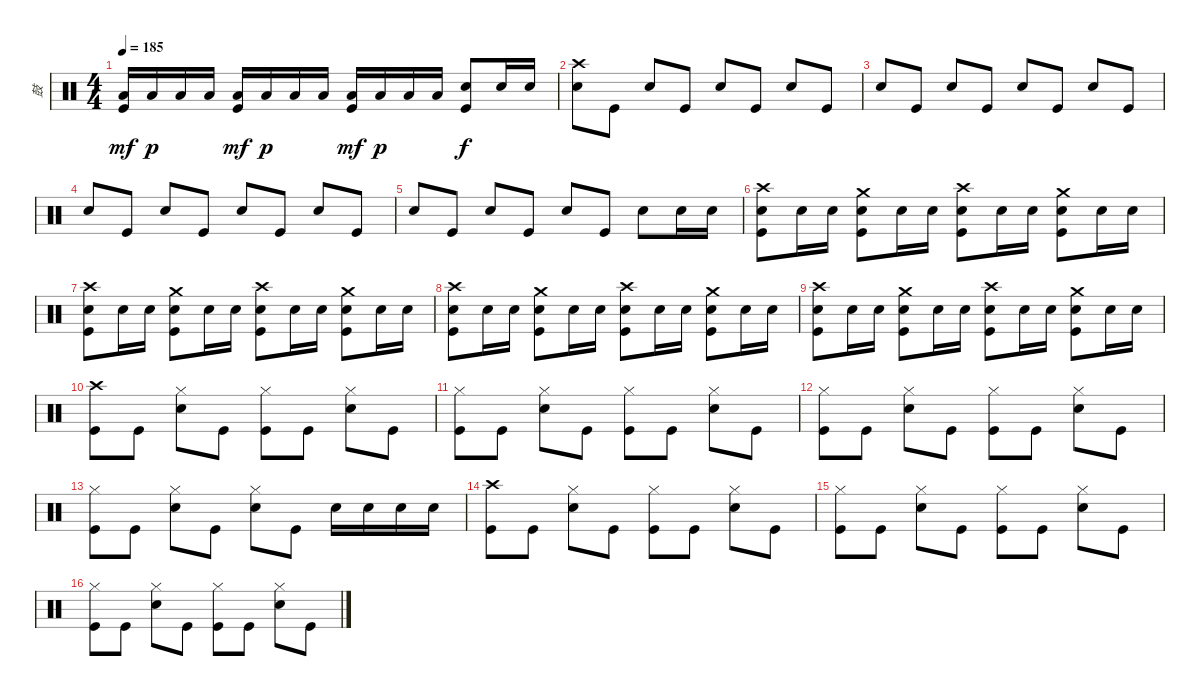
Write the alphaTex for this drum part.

\track ("鼓" "鼓") {instrument percussion}
\staff {score}
\articulation defaults
\ts (4 4)
\tempo 185
\clef neutral
\ks c
("Low Floor Tom (hit)" "Kick (hit)").16{dy mf} "Low Floor Tom (hit)".16{dy p} "Low Floor Tom (hit)".16 "Low Floor Tom (hit)".16 ("Low Floor Tom (hit)" "Kick (hit)").16{dy mf} "Low Floor Tom (hit)".16{dy p} "Low Floor Tom (hit)".16 "Low Floor Tom (hit)".16 ("Low Floor Tom (hit)" "Kick (hit)").16{dy mf} "Low Floor Tom (hit)".16{dy p} "Low Floor Tom (hit)".16 "Low Floor Tom (hit)".16 ("Snare (hit) 2" "Kick (hit)").8{dy f} "Snare (hit) 2".16 "Snare (hit) 2".16 |
("Crash high (hit)" "Snare (hit) 2").8 "Kick (hit)".8 "Snare (hit) 2".8 "Kick (hit)".8 "Snare (hit) 2".8 "Kick (hit)".8 "Snare (hit) 2".8 "Kick (hit)".8 |
"Snare (hit) 2".8 "Kick (hit)".8 "Snare (hit) 2".8 "Kick (hit)".8 "Snare (hit) 2".8 "Kick (hit)".8 "Snare (hit) 2".8 "Kick (hit)".8 |
"Snare (hit) 2".8 "Kick (hit)".8 "Snare (hit) 2".8 "Kick (hit)".8 "Snare (hit) 2".8 "Kick (hit)".8 "Snare (hit) 2".8 "Kick (hit)".8 |
"Snare (hit) 2".8 "Kick (hit)".8 "Snare (hit) 2".8 "Kick (hit)".8 "Snare (hit) 2".8 "Kick (hit)".8 "Snare (hit) 2".8 "Snare (hit) 2".16 "Snare (hit) 2".16 |
("Crash high (hit)" "Snare (hit) 2" "Kick (hit)").8 "Snare (hit) 2".16 "Snare (hit) 2".16 ("Crash medium (hit)" "Snare (hit) 2" "Kick (hit)").8 "Snare (hit) 2".16 "Snare (hit) 2".16 ("Crash high (hit)" "Snare (hit) 2" "Kick (hit)").8 "Snare (hit) 2".16 "Snare (hit) 2".16 ("Crash medium (hit)" "Snare (hit) 2" "Kick (hit)").8 "Snare (hit) 2".16 "Snare (hit) 2".16 |
("Crash high (hit)" "Snare (hit) 2" "Kick (hit)").8 "Snare (hit) 2".16 "Snare (hit) 2".16 ("Crash medium (hit)" "Snare (hit) 2" "Kick (hit)").8 "Snare (hit) 2".16 "Snare (hit) 2".16 ("Crash high (hit)" "Snare (hit) 2" "Kick (hit)").8 "Snare (hit) 2".16 "Snare (hit) 2".16 ("Crash medium (hit)" "Snare (hit) 2" "Kick (hit)").8 "Snare (hit) 2".16 "Snare (hit) 2".16 |
("Crash high (hit)" "Snare (hit) 2" "Kick (hit)").8 "Snare (hit) 2".16 "Snare (hit) 2".16 ("Crash medium (hit)" "Snare (hit) 2" "Kick (hit)").8 "Snare (hit) 2".16 "Snare (hit) 2".16 ("Crash high (hit)" "Snare (hit) 2" "Kick (hit)").8 "Snare (hit) 2".16 "Snare (hit) 2".16 ("Crash medium (hit)" "Snare (hit) 2" "Kick (hit)").8 "Snare (hit) 2".16 "Snare (hit) 2".16 |
("Crash high (hit)" "Snare (hit) 2" "Kick (hit)").8 "Snare (hit) 2".16 "Snare (hit) 2".16 ("Crash medium (hit)" "Snare (hit) 2" "Kick (hit)").8 "Snare (hit) 2".16 "Snare (hit) 2".16 ("Crash high (hit)" "Snare (hit) 2" "Kick (hit)").8 "Snare (hit) 2".16 "Snare (hit) 2".16 ("Crash medium (hit)" "Snare (hit) 2" "Kick (hit)").8 "Snare (hit) 2".16 "Snare (hit) 2".16 |
("Crash high (hit)" "Kick (hit)").8 "Kick (hit)".8 ("Hi-Hat (closed)" "Snare (hit) 2").8 "Kick (hit)".8 ("Hi-Hat (closed)" "Kick (hit)").8 "Kick (hit)".8 ("Hi-Hat (closed)" "Snare (hit) 2").8 "Kick (hit)".8 |
("Hi-Hat (closed)" "Kick (hit)").8 "Kick (hit)".8 ("Hi-Hat (closed)" "Snare (hit) 2").8 "Kick (hit)".8 ("Hi-Hat (closed)" "Kick (hit)").8 "Kick (hit)".8 ("Hi-Hat (closed)" "Snare (hit) 2").8 "Kick (hit)".8 |
("Hi-Hat (closed)" "Kick (hit)").8 "Kick (hit)".8 ("Hi-Hat (closed)" "Snare (hit) 2").8 "Kick (hit)".8 ("Hi-Hat (closed)" "Kick (hit)").8 "Kick (hit)".8 ("Hi-Hat (closed)" "Snare (hit) 2").8 "Kick (hit)".8 |
("Hi-Hat (closed)" "Kick (hit)").8 "Kick (hit)".8 ("Hi-Hat (closed)" "Snare (hit) 2").8 "Kick (hit)".8 ("Hi-Hat (closed)" "Snare (hit) 2").8 "Kick (hit)".8 "Snare (hit) 2".16 "Snare (hit) 2".16 "Snare (hit) 2".16 "Snare (hit) 2".16 |
("Crash high (hit)" "Kick (hit)").8 "Kick (hit)".8 ("Hi-Hat (closed)" "Snare (hit) 2").8 "Kick (hit)".8 ("Hi-Hat (closed)" "Kick (hit)").8 "Kick (hit)".8 ("Hi-Hat (closed)" "Snare (hit) 2").8 "Kick (hit)".8 |
("Hi-Hat (closed)" "Kick (hit)").8 "Kick (hit)".8 ("Hi-Hat (closed)" "Snare (hit) 2").8 "Kick (hit)".8 ("Hi-Hat (closed)" "Kick (hit)").8 "Kick (hit)".8 ("Hi-Hat (closed)" "Snare (hit) 2").8 "Kick (hit)".8 |
("Hi-Hat (closed)" "Kick (hit)").8 "Kick (hit)".8 ("Hi-Hat (closed)" "Snare (hit) 2").8 "Kick (hit)".8 ("Hi-Hat (closed)" "Kick (hit)").8 "Kick (hit)".8 ("Hi-Hat (closed)" "Snare (hit) 2").8 "Kick (hit)".8
